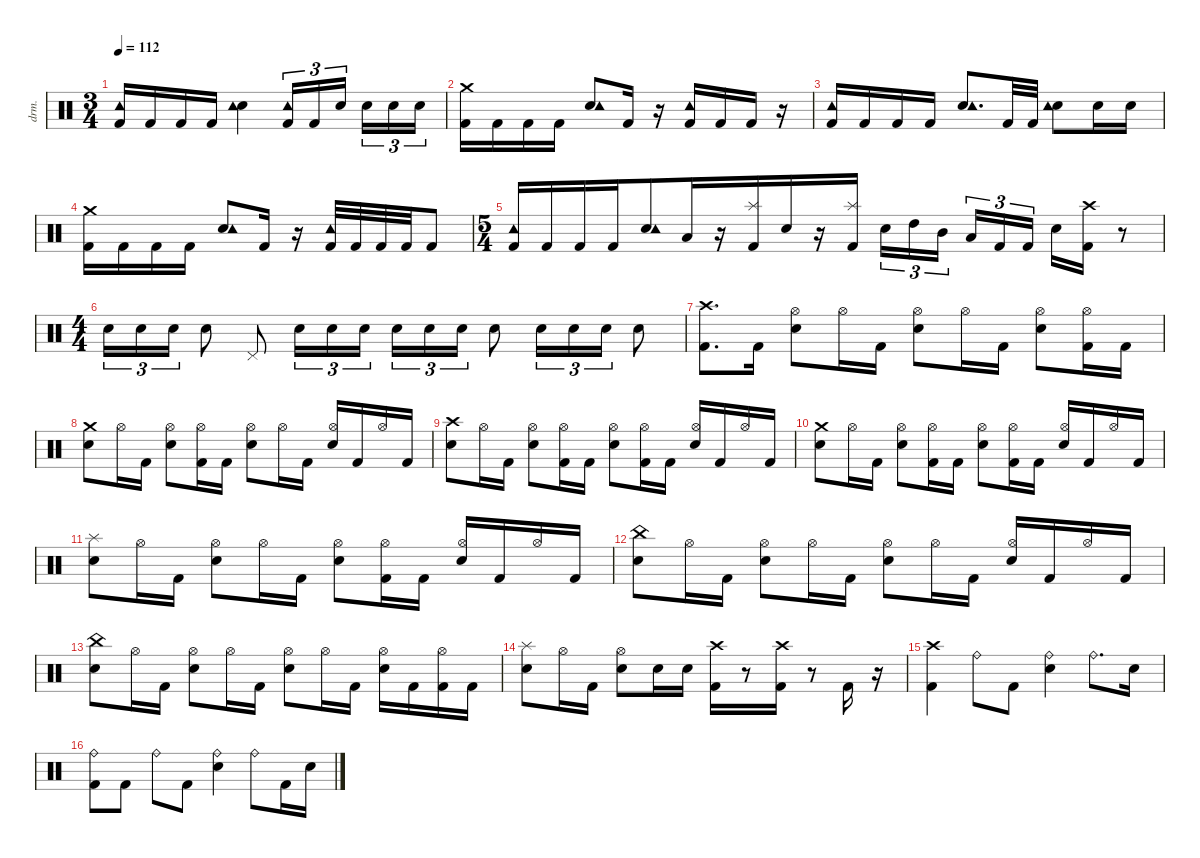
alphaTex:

\defaultSystemsLayout 4
\hideDynamics
\bracketExtendMode nobrackets
\otherSystemsTrackNameOrientation horizontal
\track ("Mike Portnoy" "drm.") {instrument percussion}
\staff {score}
\articulation defaults
\ts (3 4)
\tempo 112
\clef neutral
\ks c
("Kick (hit) 2" "Tambourine (hit)").16{dy f beam Up} "Kick (hit) 2".16{beam Up} "Kick (hit) 2".16{beam Up} "Kick (hit) 2".16{beam Up} ("Snare (hit) 2" "Tambourine (hit)").4{beam Down} ("Kick (hit) 2" "Tambourine (hit)").16{tu (3 2) beam Up} "Kick (hit) 2".16{tu (3 2) beam Up} "Snare (hit) 2".16{tu (3 2) beam Up} "Snare (hit) 2".16{tu (3 2) beam Down} "Snare (hit) 2".16{tu (3 2) beam Down} "Snare (hit) 2".16{tu (3 2) beam Down} |
("Kick (hit) 2" "Crash medium (hit)").16{beam Down} "Kick (hit) 2".16{beam Down} "Kick (hit) 2".16{beam Down} "Kick (hit) 2".16{beam Down} ("Snare (hit) 2" "Tambourine (hit)").8{beam Up} "Kick (hit) 2".16{beam Up} r.16{beam Up} ("Kick (hit) 2" "Tambourine (hit)").16{beam Up} "Kick (hit) 2".16{beam Up} "Kick (hit) 2".16{beam Up} r.16{beam Up} |
("Kick (hit) 2" "Tambourine (hit)").16{beam Up} "Kick (hit) 2".16{beam Up} "Kick (hit) 2".16{beam Up} "Kick (hit) 2".16{beam Up} ("Snare (hit) 2" "Tambourine (hit)").8{d beam Up} "Kick (hit) 2".32{beam Up} "Kick (hit) 2".32{beam Up} ("Snare (hit) 2" "Tambourine (hit)").8{beam Down} "Snare (hit) 2".16{beam Down} "Snare (hit) 2".16{beam Down} |
("Kick (hit) 2" "Crash medium (hit)").16{beam Down} "Kick (hit) 2".16{beam Down} "Kick (hit) 2".16{beam Down} "Kick (hit) 2".16{beam Down} ("Snare (hit) 2" "Tambourine (hit)").8{beam Up} "Kick (hit) 2".16{beam Up} r.16{beam Up} ("Kick (hit) 2" "Tambourine (hit)").32{beam Up} "Kick (hit) 2".32{beam Up} "Kick (hit) 2".32{beam Up} "Kick (hit) 2".32{beam Up} "Kick (hit) 2".8{beam Up} |
\ts (5 4)
\beaming (8 6 4)
("Kick (hit) 2" "Tambourine (hit)").16{beam Up} "Kick (hit) 2".16{beam Up} "Kick (hit) 2".16{beam Up} "Kick (hit) 2".16{beam Up} ("Snare (hit) 2" "Tambourine (hit)").8{beam Up} "Low Tom (hit)".16{beam Up} r.16{beam Up} ("Kick (hit) 2" "Splash (hit)").16{beam Up} "Snare (hit) 2".16{beam Up} r.16{beam Up} ("Kick (hit) 2" "Splash (hit)").16{beam Up} "Snare (hit) 2".16{tu (3 2) beam Down} "High Tom (hit)".16{tu (3 2) beam Down} "Mid Tom (hit)".16{tu (3 2) beam Down} "Low Tom (hit)".16{tu (3 2) beam Up} "Kick (hit) 2".16{tu (3 2) beam Up} "Kick (hit) 2".16{tu (3 2) beam Up} "Snare (hit) 2".16{beam Down} ("Kick (hit) 2" "Crash high (hit)").16{beam Down} r.8{beam Down} |
\ts (4 4)
\beaming (8 2 2 2 2)
"Snare (hit) 2".16{tu (3 2) beam Down} "Snare (hit) 2".16{tu (3 2) beam Down} "Snare (hit) 2".16{tu (3 2) beam Down} "Snare (hit) 2".8{beam Down} "Pedal Hi-Hat (hit)".8{beam Up} "Snare (hit) 2".16{tu (3 2) beam Down} "Snare (hit) 2".16{tu (3 2) beam Down} "Snare (hit) 2".16{tu (3 2) beam Down} "Snare (hit) 2".16{tu (3 2) beam Down} "Snare (hit) 2".16{tu (3 2) beam Down} "Snare (hit) 2".16{tu (3 2) beam Down} "Snare (hit) 2".8{beam Down} "Snare (hit) 2".16{tu (3 2) beam Down} "Snare (hit) 2".16{tu (3 2) beam Down} "Snare (hit) 2".16{tu (3 2) beam Down} "Snare (hit) 2".8{beam Down} |
("Kick (hit) 2" "Crash high (hit)").8{d beam Down} "Kick (hit) 2".16{beam Down} ("Snare (hit) 2" "Hi-Hat (open)").8{beam Down} "Hi-Hat (open)".16{beam Down} "Kick (hit) 2".16{beam Down} ("Snare (hit) 2" "Hi-Hat (open)").8{beam Down} "Hi-Hat (open)".16{beam Down} "Kick (hit) 2".16{beam Down} ("Snare (hit) 2" "Hi-Hat (open)").8{beam Down} ("Kick (hit) 2" "Hi-Hat (open)").16{beam Down} "Kick (hit) 2".16{beam Down} |
("Snare (hit) 2" "Crash medium (hit)").8{beam Down} "Hi-Hat (open)".16{beam Down} "Kick (hit) 2".16{beam Down} ("Snare (hit) 2" "Hi-Hat (open)").8{beam Down} ("Kick (hit) 2" "Hi-Hat (open)").16{beam Down} "Kick (hit) 2".16{beam Down} ("Snare (hit) 2" "Hi-Hat (open)").8{beam Down} "Hi-Hat (open)".16{beam Down} "Kick (hit) 2".16{beam Down} ("Snare (hit) 2" "Hi-Hat (open)").16{beam Up} "Kick (hit) 2".16{beam Up} "Hi-Hat (open)".16{beam Up} "Kick (hit) 2".16{beam Up} |
("Snare (hit) 2" "Crash high (hit)").8{beam Down} "Hi-Hat (open)".16{beam Down} "Kick (hit) 2".16{beam Down} ("Snare (hit) 2" "Hi-Hat (open)").8{beam Down} ("Kick (hit) 2" "Hi-Hat (open)").16{beam Down} "Kick (hit) 2".16{beam Down} ("Snare (hit) 2" "Hi-Hat (open)").8{beam Down} ("Kick (hit) 2" "Hi-Hat (open)").16{beam Down} "Kick (hit) 2".16{beam Down} ("Snare (hit) 2" "Hi-Hat (open)").16{beam Up} "Kick (hit) 2".16{beam Up} "Hi-Hat (open)".16{beam Up} "Kick (hit) 2".16{beam Up} |
("Snare (hit) 2" "Crash medium (hit)").8{beam Down} "Hi-Hat (open)".16{beam Down} "Kick (hit) 2".16{beam Down} ("Snare (hit) 2" "Hi-Hat (open)").8{beam Down} ("Kick (hit) 2" "Hi-Hat (open)").16{beam Down} "Kick (hit) 2".16{beam Down} ("Snare (hit) 2" "Hi-Hat (open)").8{beam Down} ("Kick (hit) 2" "Hi-Hat (open)").16{beam Down} "Kick (hit) 2".16{beam Down} ("Snare (hit) 2" "Hi-Hat (open)").16{beam Up} "Kick (hit) 2".16{beam Up} "Hi-Hat (open)".16{beam Up} "Kick (hit) 2".16{beam Up} |
("Snare (hit) 2" "Splash (hit)").8{beam Down} "Hi-Hat (open)".16{beam Down} "Kick (hit) 2".16{beam Down} ("Snare (hit) 2" "Hi-Hat (open)").8{beam Down} "Hi-Hat (open)".16{beam Down} "Kick (hit) 2".16{beam Down} ("Snare (hit) 2" "Hi-Hat (open)").8{beam Down} ("Kick (hit) 2" "Hi-Hat (open)").16{beam Down} "Kick (hit) 2".16{beam Down} ("Snare (hit) 2" "Hi-Hat (open)").16{beam Up} "Kick (hit) 2".16{beam Up} "Hi-Hat (open)".16{beam Up} "Kick (hit) 2".16{beam Up} |
("Snare (hit) 2" "China (hit)").8{beam Down} "Hi-Hat (open)".16{beam Down} "Kick (hit) 2".16{beam Down} ("Snare (hit) 2" "Hi-Hat (open)").8{beam Down} "Hi-Hat (open)".16{beam Down} "Kick (hit) 2".16{beam Down} ("Snare (hit) 2" "Hi-Hat (open)").8{beam Down} "Hi-Hat (open)".16{beam Down} "Kick (hit) 2".16{beam Down} ("Snare (hit) 2" "Hi-Hat (open)").16{beam Up} "Kick (hit) 2".16{beam Up} "Hi-Hat (open)".16{beam Up} "Kick (hit) 2".16{beam Up} |
("Snare (hit) 2" "China (hit)").8{beam Down} "Hi-Hat (open)".16{beam Down} "Kick (hit) 2".16{beam Down} ("Snare (hit) 2" "Hi-Hat (open)").8{beam Down} "Hi-Hat (open)".16{beam Down} "Kick (hit) 2".16{beam Down} ("Snare (hit) 2" "Hi-Hat (open)").8{beam Down} "Hi-Hat (open)".16{beam Down} "Kick (hit) 2".16{beam Down} ("Snare (hit) 2" "Hi-Hat (open)").16{beam Down} "Kick (hit) 2".16{beam Down} ("Kick (hit) 2" "Hi-Hat (open)").16{beam Down} "Kick (hit) 2".16{beam Down} |
("Snare (hit) 2" "Splash (hit)").8{beam Down} "Hi-Hat (open)".16{beam Down} "Kick (hit) 2".16{beam Down} ("Snare (hit) 2" "Hi-Hat (open)").8{beam Down} "Snare (hit) 2".16{beam Down} "Snare (hit) 2".16{beam Down} ("Kick (hit) 2" "Crash high (hit)").16{beam Down} r.8{beam Down} ("Kick (hit) 2" "Crash high (hit)").16{beam Down} r.8{beam Down} "Kick (hit) 2".16{beam Up} r.16{beam Up} |
("Kick (hit) 2" "Crash high (hit)").4{beam Down} "Ride (bell)".8{beam Down} "Kick (hit) 2".8{beam Down} ("Snare (hit) 2" "Ride (bell)").4{beam Down} "Ride (bell)".8{d beam Down} "Snare (hit) 2".16{beam Down} |
("Kick (hit) 2" "Ride (bell)").8{beam Down} "Kick (hit) 2".8{beam Down} "Ride (bell)".8{beam Down} "Kick (hit) 2".8{beam Down} ("Snare (hit) 2" "Ride (bell)").4{beam Down} "Ride (bell)".8{beam Down} "Kick (hit) 2".16{beam Down} "Snare (hit) 2".16{beam Down}
